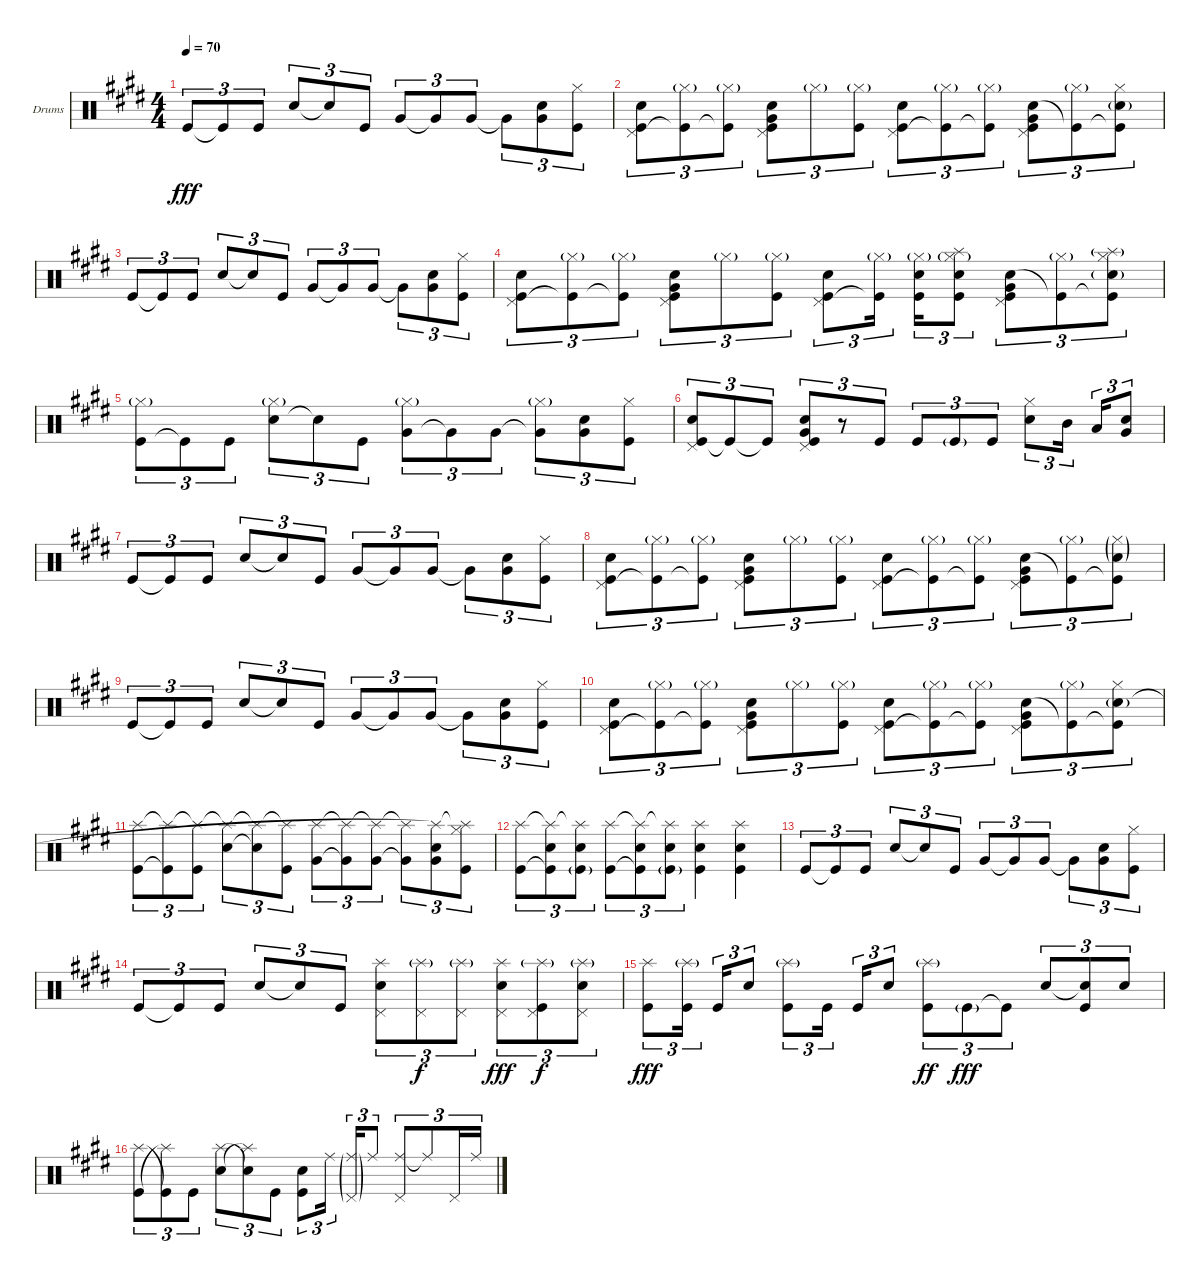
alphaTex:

\defaultSystemsLayout 4
\bracketExtendMode groupsimilarinstruments
\firstSystemTrackNameOrientation horizontal
\otherSystemsTrackNameOrientation horizontal
\track ("Drumkit" "Drums") {instrument percussion}
\staff {score}
\articulation defaults
\ts (4 4)
\tempo 70
\clef neutral
\ks c#minor "Kick (hit)".8{tu (3 2) dy fff} "Kick (hit)"{t}.8{tu (3 2)} "Kick (hit)".8{tu (3 2)} "Snare (hit) 2".8{tu (3 2)} "Snare (hit) 2"{t}.8{tu (3 2)} "Kick (hit)".8{tu (3 2)} "Very Low Tom (hit)".8{tu (3 2)} "Very Low Tom (hit)"{t}.8{tu (3 2)} "Very Low Tom (hit)".8{tu (3 2)} "Very Low Tom (hit)"{t}.8{tu (3 2)}
("Snare (hit) 2" "Very Low Tom (hit)").8{tu (3 2)} ("Hi-Hat (closed)" "Kick (hit)").8{tu (3 2)} |
("Kick (hit)" "Pedal Hi-Hat (hit)" "Snare (hit) 2").8{tu (3 2)} ("Hi-Hat (closed)"{g} "Kick (hit)"{t}).8{tu (3 2)} ("Hi-Hat (closed)"{g} "Kick (hit)"{t}).8{tu (3 2)} ("Very Low Tom (hit)" "Kick (hit)" "Pedal Hi-Hat (hit)" "Snare (hit) 2").8{tu (3 2)} "Hi-Hat (closed)"{g}.8{tu (3 2)} ("Hi-Hat (closed)"{g} "Kick (hit)").8{tu (3 2)} ("Kick (hit)" "Pedal Hi-Hat (hit)" "Snare (hit) 2").8{tu (3 2)} ("Hi-Hat (closed)"{g} "Kick (hit)"{t}).8{tu (3 2)} ("Hi-Hat (closed)"{g} "Kick (hit)"{t}).8{tu (3 2)} ("Snare (hit) 2" "Kick (hit)" "Pedal Hi-Hat (hit)" "Very Low Tom (hit)").8{tu (3 2)} ("Kick (hit)"{t} "Hi-Hat (closed)"{g}).8{tu (3 2)} ("Kick (hit)"{t} "Hi-Hat (closed)" "Snare (hit) 2"{g}).8{tu (3 2)} |
"Kick (hit)".8{tu (3 2)} "Kick (hit)"{t}.8{tu (3 2)} "Kick (hit)".8{tu (3 2)} "Snare (hit) 2".8{tu (3 2)} "Snare (hit) 2"{t}.8{tu (3 2)} "Kick (hit)".8{tu (3 2)} "Very Low Tom (hit)".8{tu (3 2)} "Very Low Tom (hit)"{t}.8{tu (3 2)} "Very Low Tom (hit)".8{tu (3 2)} "Very Low Tom (hit)"{t}.8{tu (3 2)} ("Snare (hit) 2" "Very Low Tom (hit)").8{tu (3 2)} ("Hi-Hat (closed)" "Kick (hit)").8{tu (3 2)} |
("Kick (hit)" "Pedal Hi-Hat (hit)" "Snare (hit) 2").8{tu (3 2)} ("Hi-Hat (closed)"{g} "Kick (hit)"{t}).8{tu (3 2)} ("Hi-Hat (closed)"{g} "Kick (hit)"{t}).8{tu (3 2)} ("Very Low Tom (hit)" "Kick (hit)" "Pedal Hi-Hat (hit)" "Snare (hit) 2").8{tu (3 2)} "Hi-Hat (closed)"{g}.8{tu (3 2)} ("Hi-Hat (closed)"{g} "Kick (hit)").8{tu (3 2)} ("Kick (hit)" "Pedal Hi-Hat (hit)" "Snare (hit) 2").8{tu (3 2)} ("Hi-Hat (closed)"{g} "Kick (hit)"{t}).16{tu (3 2)} ("Kick (hit)" "Hi-Hat (closed)"{g} "Snare (hit) 2").16{tu (3 2)} ("Hi-Hat (closed)"{g} "Kick (hit)" "Snare (hit) 2" "Splash (hit)").8{tu (3 2)} ("Snare (hit) 2" "Kick (hit)" "Pedal Hi-Hat (hit)" "Very Low Tom (hit)").8{tu (3 2)} ("Kick (hit)"{t} "Hi-Hat (closed)"{g}).8{tu (3 2)} ("Kick (hit)"{t} "Hi-Hat (closed)" "Snare (hit) 2"{g} "Splash (hit)"{g}).8{tu (3 2)} |
("Kick (hit)" "Hi-Hat (closed)"{g}).8{tu (3 2)} "Kick (hit)"{t}.8{tu (3 2)} "Kick (hit)".8{tu (3 2)} ("Snare (hit) 2" "Hi-Hat (closed)"{g}).8{tu (3 2)} "Snare (hit) 2"{t}.8{tu (3 2)} "Kick (hit)".8{tu (3 2)} ("Very Low Tom (hit)" "Hi-Hat (closed)"{g}).8{tu (3 2)} "Very Low Tom (hit)"{t}.8{tu (3 2)} "Very Low Tom (hit)".8{tu (3 2)} ("Very Low Tom (hit)"{t} "Hi-Hat (closed)"{g}).8{tu (3 2)} ("Snare (hit) 2" "Very Low Tom (hit)").8{tu (3 2)} ("Hi-Hat (closed)" "Kick (hit)").8{tu (3 2)} |
("Kick (hit)" "Pedal Hi-Hat (hit)" "Snare (hit) 2").8{tu (3 2)} "Kick (hit)"{t}.8{tu (3 2)} "Kick (hit)"{t}.8{tu (3 2)} ("Very Low Tom (hit)" "Kick (hit)" "Pedal Hi-Hat (hit)" "Snare (hit) 2").8{tu (3 2)} r.8{tu (3 2)} "Kick (hit)".8{tu (3 2)} "Kick (hit)".8{tu (3 2)} "Kick (hit)"{g}.8{tu (3 2)} "Kick (hit)".8{tu (3 2)} ("Snare (hit) 2" "Hi-Hat (closed)").8{tu (3 2)} "Mid Tom (hit)".16{tu (3 2)} "Low Tom (hit)".16{tu (3 2)} ("Very Low Tom (hit)" "Snare (hit) 2").8{tu (3 2)} |
"Kick (hit)".8{tu (3 2)} "Kick (hit)"{t}.8{tu (3 2)} "Kick (hit)".8{tu (3 2)} "Snare (hit) 2".8{tu (3 2)} "Snare (hit) 2"{t}.8{tu (3 2)} "Kick (hit)".8{tu (3 2)} "Very Low Tom (hit)".8{tu (3 2)} "Very Low Tom (hit)"{t}.8{tu (3 2)} "Very Low Tom (hit)".8{tu (3 2)} "Very Low Tom (hit)"{t}.8{tu (3 2)} ("Snare (hit) 2" "Very Low Tom (hit)").8{tu (3 2)} ("Hi-Hat (closed)" "Kick (hit)").8{tu (3 2)} |
("Kick (hit)" "Pedal Hi-Hat (hit)" "Snare (hit) 2").8{tu (3 2)} ("Hi-Hat (closed)"{g} "Kick (hit)"{t}).8{tu (3 2)} ("Hi-Hat (closed)"{g} "Kick (hit)"{t}).8{tu (3 2)} ("Very Low Tom (hit)" "Kick (hit)" "Pedal Hi-Hat (hit)" "Snare (hit) 2").8{tu (3 2)} "Hi-Hat (closed)"{g}.8{tu (3 2)} ("Hi-Hat (closed)"{g} "Kick (hit)").8{tu (3 2)} ("Kick (hit)" "Pedal Hi-Hat (hit)" "Snare (hit) 2").8{tu (3 2)} ("Hi-Hat (closed)"{g} "Kick (hit)"{t}).8{tu (3 2)} ("Hi-Hat (closed)"{g} "Kick (hit)"{t}).8{tu (3 2)} ("Snare (hit) 2" "Kick (hit)" "Pedal Hi-Hat (hit)" "Very Low Tom (hit)").8{tu (3 2)} ("Kick (hit)"{t} "Hi-Hat (closed)"{g}).8{tu (3 2)} ("Kick (hit)"{t} "Hi-Hat (closed)"{g} "Snare (hit) 2"{g}).8{tu (3 2)} |
"Kick (hit)".8{tu (3 2)} "Kick (hit)"{t}.8{tu (3 2)} "Kick (hit)".8{tu (3 2)} "Snare (hit) 2".8{tu (3 2)} "Snare (hit) 2"{t}.8{tu (3 2)} "Kick (hit)".8{tu (3 2)} "Very Low Tom (hit)".8{tu (3 2)} "Very Low Tom (hit)"{t}.8{tu (3 2)} "Very Low Tom (hit)".8{tu (3 2)} "Very Low Tom (hit)"{t}.8{tu (3 2)} ("Snare (hit) 2" "Very Low Tom (hit)").8{tu (3 2)} ("Hi-Hat (closed)" "Kick (hit)").8{tu (3 2)} |
("Kick (hit)" "Pedal Hi-Hat (hit)" "Snare (hit) 2").8{tu (3 2)} ("Hi-Hat (closed)"{g} "Kick (hit)"{t}).8{tu (3 2)} ("Hi-Hat (closed)"{g} "Kick (hit)"{t}).8{tu (3 2)} ("Very Low Tom (hit)" "Kick (hit)" "Pedal Hi-Hat (hit)" "Snare (hit) 2").8{tu (3 2)} "Hi-Hat (closed)"{g}.8{tu (3 2)} ("Hi-Hat (closed)"{g} "Kick (hit)").8{tu (3 2)} ("Kick (hit)" "Pedal Hi-Hat (hit)" "Snare (hit) 2").8{tu (3 2)} ("Hi-Hat (closed)"{g} "Kick (hit)"{t}).8{tu (3 2)} ("Hi-Hat (closed)"{g} "Kick (hit)"{t}).8{tu (3 2)} ("Snare (hit) 2" "Kick (hit)" "Pedal Hi-Hat (hit)" "Very Low Tom (hit)").8{tu (3 2)} ("Kick (hit)"{t} "Hi-Hat (closed)"{g}).8{tu (3 2)} ("Kick (hit)"{t} "Hi-Hat (closed)" "Snare (hit) 2"{g}).8{tu (3 2)} |
("Kick (hit)" "Splash (hit)").8{tu (3 2)} ("Kick (hit)"{t} "Splash (hit)"{t}).8{tu (3 2)} ("Kick (hit)" "Splash (hit)"{t}).8{tu (3 2)} ("Snare (hit) 2" "Splash (hit)"{t}).8{tu (3 2)} ("Snare (hit) 2"{t} "Splash (hit)"{t}).8{tu (3 2)} ("Kick (hit)" "Splash (hit)"{t}).8{tu (3 2)} ("Very Low Tom (hit)" "Splash (hit)").8{tu (3 2)} ("Very Low Tom (hit)"{t} "Splash (hit)"{t}).8{tu (3 2)} ("Very Low Tom (hit)" "Splash (hit)"{t}).8{tu (3 2)} ("Very Low Tom (hit)"{t} "Splash (hit)"{t}).8{tu (3 2)} ("Snare (hit) 2" "Very Low Tom (hit)" "Splash (hit)"{t}).8{tu (3 2)} ("Hi-Hat (closed)" "Kick (hit)" "Splash (hit)"{t}).8{tu (3 2)} |
("Kick (hit)" "Splash (hit)").8{tu (3 2)} ("Kick (hit)"{t} "Splash (hit)"{t} "Snare (hit) 2").8{tu (3 2)} ("Kick (hit)"{g} "Splash (hit)"{t} "Snare (hit) 2").8{tu (3 2)} ("Kick (hit)" "Splash (hit)").8{tu (3 2)} ("Kick (hit)"{t} "Splash (hit)"{t} "Snare (hit) 2").8{tu (3 2)} ("Kick (hit)"{g} "Splash (hit)"{t} "Snare (hit) 2").8{tu (3 2)} ("Kick (hit)" "Snare (hit) 2" "Splash (hit)").4 ("Splash (hit)" "Snare (hit) 2" "Kick (hit)").4 |
"Kick (hit)".8{tu (3 2)} "Kick (hit)"{t}.8{tu (3 2)} "Kick (hit)".8{tu (3 2)} "Snare (hit) 2".8{tu (3 2)} "Snare (hit) 2"{t}.8{tu (3 2)} "Kick (hit)".8{tu (3 2)} "Very Low Tom (hit)".8{tu (3 2)} "Very Low Tom (hit)"{t}.8{tu (3 2)} "Very Low Tom (hit)".8{tu (3 2)} "Very Low Tom (hit)"{t}.8{tu (3 2)} ("Snare (hit) 2" "Very Low Tom (hit)").8{tu (3 2)} ("Hi-Hat (closed)" "Kick (hit)").8{tu (3 2)} |
"Kick (hit)".8{tu (3 2)} "Kick (hit)"{t}.8{tu (3 2)} "Kick (hit)".8{tu (3 2)} "Snare (hit) 2".8{tu (3 2)} "Snare (hit) 2"{t}.8{tu (3 2)} "Kick (hit)".8{tu (3 2)} ("Splash (hit)" "Snare (hit) 2" "Pedal Hi-Hat (hit)").8{tu (3 2)} ("Splash (hit)"{g} "Pedal Hi-Hat (hit)").8{tu (3 2) dy f} ("Splash (hit)"{g} "Pedal Hi-Hat (hit)").8{tu (3 2)} ("Splash (hit)" "Snare (hit) 2" "Pedal Hi-Hat (hit)").8{tu (3 2) dy fff} ("Splash (hit)"{g} "Kick (hit)" "Pedal Hi-Hat (hit)").8{tu (3 2) dy f} ("Splash (hit)"{g} "Snare (hit) 2" "Pedal Hi-Hat (hit)").8{tu (3 2)} |
("Kick (hit)" "Splash (hit)").8{tu (3 2) dy fff} ("Kick (hit)" "Splash (hit)"{g}).16{tu (3 2)} "Kick (hit)".16{tu (3 2)} "Snare (hit) 2".8{tu (3 2)} ("Kick (hit)" "Splash (hit)"{g}).8{tu (3 2)} "Kick (hit)".16{tu (3 2)} "Kick (hit)".16{tu (3 2)} "Snare (hit) 2".8{tu (3 2)} ("Kick (hit)" "Splash (hit)"{g}).8{tu (3 2) dy ff} "Kick (hit)"{g}.8{tu (3 2) dy fff} "Kick (hit)"{t}.8{tu (3 2)} "Snare (hit) 2".8{tu (3 2)} ("Snare (hit) 2"{t} "Kick (hit)").8{tu (3 2)} "Snare (hit) 2".8{tu (3 2)} |
("Kick (hit)" "Splash (hit)").8{tu (3 2)} ("Splash (hit)"{t} "Kick (hit)"{t}).8{tu (3 2)} "Kick (hit)".8{tu (3 2)} ("Snare (hit) 2" "Splash (hit)").8{tu (3 2)} ("Splash (hit)"{t} "Snare (hit) 2"{t}).8{tu (3 2)} "Kick (hit)".8{tu (3 2)} ("Snare (hit) 2" "Kick (hit)").8{tu (3 2)} "Ride (middle)".16{tu (3 2)} ("Ride (middle)"{g} "Pedal Hi-Hat (hit)"{g}).16{tu (3 2)} "Ride (middle)".8{tu (3 2)} ("Ride (middle)" "Pedal Hi-Hat (hit)").8{tu (3 2)} "Ride (middle)"{t}.8{tu (3 2)} "Pedal Hi-Hat (hit)".16{tu (3 2)} "Ride (middle)".16{tu (3 2)}
